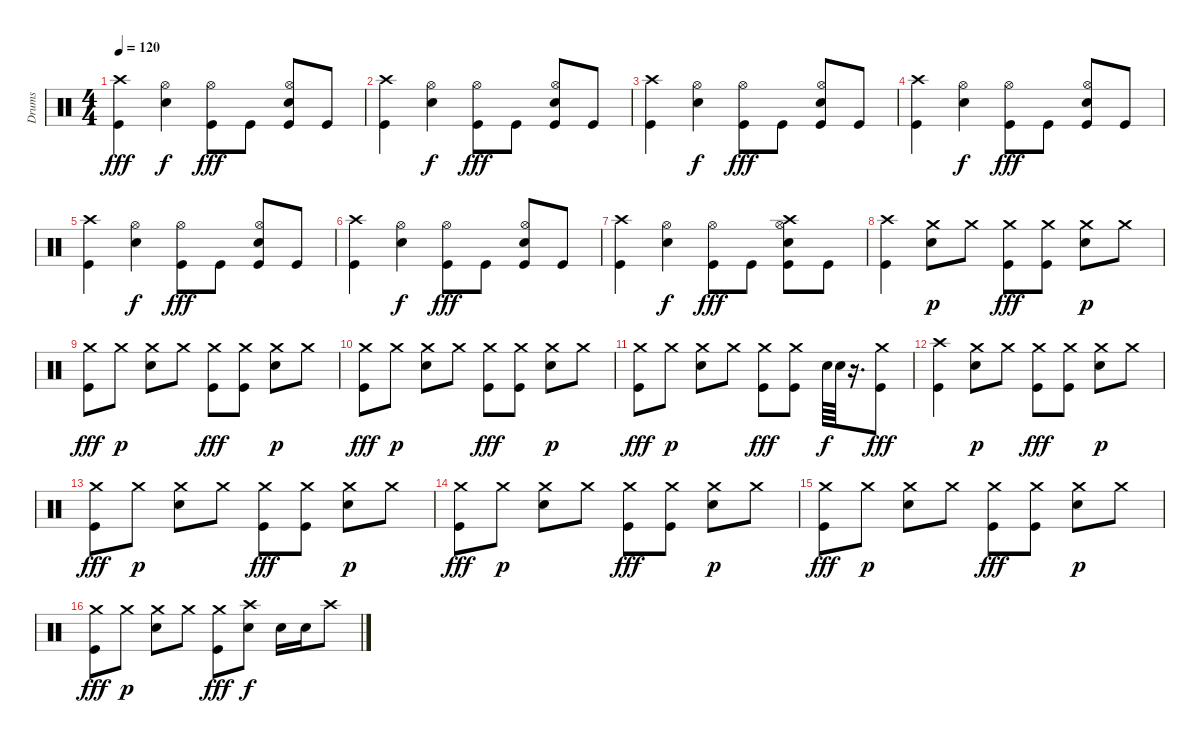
\track ("Drums" "Drums") {instrument percussion}
\staff {score}
\articulation defaults
\ts (4 4)
\tempo 120
\clef neutral
\ks c
("Crash high (hit)" "Kick (hit)").4{dy fff} ("Hi-Hat (open)" "Snare (hit) 2").4{dy f} ("Hi-Hat (open)" "Kick (hit)").8{dy fff} "Kick (hit)".8 ("Hi-Hat (open)" "Snare (hit) 2" "Kick (hit)").8 "Kick (hit)".8 |
("Crash high (hit)" "Kick (hit)").4 ("Hi-Hat (open)" "Snare (hit) 2").4{dy f} ("Hi-Hat (open)" "Kick (hit)").8{dy fff} "Kick (hit)".8 ("Hi-Hat (open)" "Snare (hit) 2" "Kick (hit)").8 "Kick (hit)".8 |
("Crash high (hit)" "Kick (hit)").4 ("Hi-Hat (open)" "Snare (hit) 2").4{dy f} ("Hi-Hat (open)" "Kick (hit)").8{dy fff} "Kick (hit)".8 ("Hi-Hat (open)" "Snare (hit) 2" "Kick (hit)").8 "Kick (hit)".8 |
("Crash high (hit)" "Kick (hit)").4 ("Hi-Hat (open)" "Snare (hit) 2").4{dy f} ("Hi-Hat (open)" "Kick (hit)").8{dy fff} "Kick (hit)".8 ("Hi-Hat (open)" "Snare (hit) 2" "Kick (hit)").8 "Kick (hit)".8 |
("Crash high (hit)" "Kick (hit)").4 ("Hi-Hat (open)" "Snare (hit) 2").4{dy f} ("Hi-Hat (open)" "Kick (hit)").8{dy fff} "Kick (hit)".8 ("Hi-Hat (open)" "Snare (hit) 2" "Kick (hit)").8 "Kick (hit)".8 |
("Crash high (hit)" "Kick (hit)").4 ("Hi-Hat (open)" "Snare (hit) 2").4{dy f} ("Hi-Hat (open)" "Kick (hit)").8{dy fff} "Kick (hit)".8 ("Hi-Hat (open)" "Snare (hit) 2" "Kick (hit)").8 "Kick (hit)".8 |
("Crash high (hit)" "Kick (hit)").4 ("Hi-Hat (open)" "Snare (hit) 2").4{dy f} ("Hi-Hat (open)" "Kick (hit)").8{dy fff} "Kick (hit)".8 ("Crash high (hit)" "Hi-Hat (open)" "Snare (hit) 2" "Kick (hit)").8 "Kick (hit)".8 |
("Crash high (hit)" "Kick (hit)").4 ("Crash medium (hit)" "Snare (hit) 2").8{dy p} "Crash medium (hit)".8 ("Crash medium (hit)" "Kick (hit)").8{dy fff} ("Crash medium (hit)" "Kick (hit)").8 ("Crash medium (hit)" "Snare (hit) 2").8{dy p} "Crash medium (hit)".8 |
("Crash medium (hit)" "Kick (hit)").8{dy fff} "Crash medium (hit)".8{dy p} ("Crash medium (hit)" "Snare (hit) 2").8 "Crash medium (hit)".8 ("Crash medium (hit)" "Kick (hit)").8{dy fff} ("Crash medium (hit)" "Kick (hit)").8 ("Crash medium (hit)" "Snare (hit) 2").8{dy p} "Crash medium (hit)".8 |
("Crash medium (hit)" "Kick (hit)").8{dy fff} "Crash medium (hit)".8{dy p} ("Crash medium (hit)" "Snare (hit) 2").8 "Crash medium (hit)".8 ("Crash medium (hit)" "Kick (hit)").8{dy fff} ("Crash medium (hit)" "Kick (hit)").8 ("Crash medium (hit)" "Snare (hit) 2").8{dy p} "Crash medium (hit)".8 |
("Crash medium (hit)" "Kick (hit)").8{dy fff} "Crash medium (hit)".8{dy p} ("Crash medium (hit)" "Snare (hit) 2").8 "Crash medium (hit)".8 ("Crash medium (hit)" "Kick (hit)").8{dy fff} ("Crash medium (hit)" "Kick (hit)").8 "Snare (hit) 2".64{dy f} "Snare (hit) 2".64 r.16{d} ("Crash medium (hit)" "Kick (hit)").8{dy fff} |
("Crash high (hit)" "Kick (hit)").4 ("Crash medium (hit)" "Snare (hit) 2").8{dy p} "Crash medium (hit)".8 ("Crash medium (hit)" "Kick (hit)").8{dy fff} ("Crash medium (hit)" "Kick (hit)").8 ("Crash medium (hit)" "Snare (hit) 2").8{dy p} "Crash medium (hit)".8 |
("Crash medium (hit)" "Kick (hit)").8{dy fff} "Crash medium (hit)".8{dy p} ("Crash medium (hit)" "Snare (hit) 2").8 "Crash medium (hit)".8 ("Crash medium (hit)" "Kick (hit)").8{dy fff} ("Crash medium (hit)" "Kick (hit)").8 ("Crash medium (hit)" "Snare (hit) 2").8{dy p} "Crash medium (hit)".8 |
("Crash medium (hit)" "Kick (hit)").8{dy fff} "Crash medium (hit)".8{dy p} ("Crash medium (hit)" "Snare (hit) 2").8 "Crash medium (hit)".8 ("Crash medium (hit)" "Kick (hit)").8{dy fff} ("Crash medium (hit)" "Kick (hit)").8 ("Crash medium (hit)" "Snare (hit) 2").8{dy p} "Crash medium (hit)".8 |
("Crash medium (hit)" "Kick (hit)").8{dy fff} "Crash medium (hit)".8{dy p} ("Crash medium (hit)" "Snare (hit) 2").8 "Crash medium (hit)".8 ("Crash medium (hit)" "Kick (hit)").8{dy fff} ("Crash medium (hit)" "Kick (hit)").8 ("Crash medium (hit)" "Snare (hit) 2").8{dy p} "Crash medium (hit)".8 |
("Crash medium (hit)" "Kick (hit)").8{dy fff} "Crash medium (hit)".8{dy p} ("Crash medium (hit)" "Snare (hit) 2").8 "Crash medium (hit)".8 ("Crash medium (hit)" "Kick (hit)").8{dy fff} ("Crash high (hit)" "Snare (hit) 2").8{dy f} "Snare (hit) 2".16 "Snare (hit) 2".16 "Crash high (hit)".8
